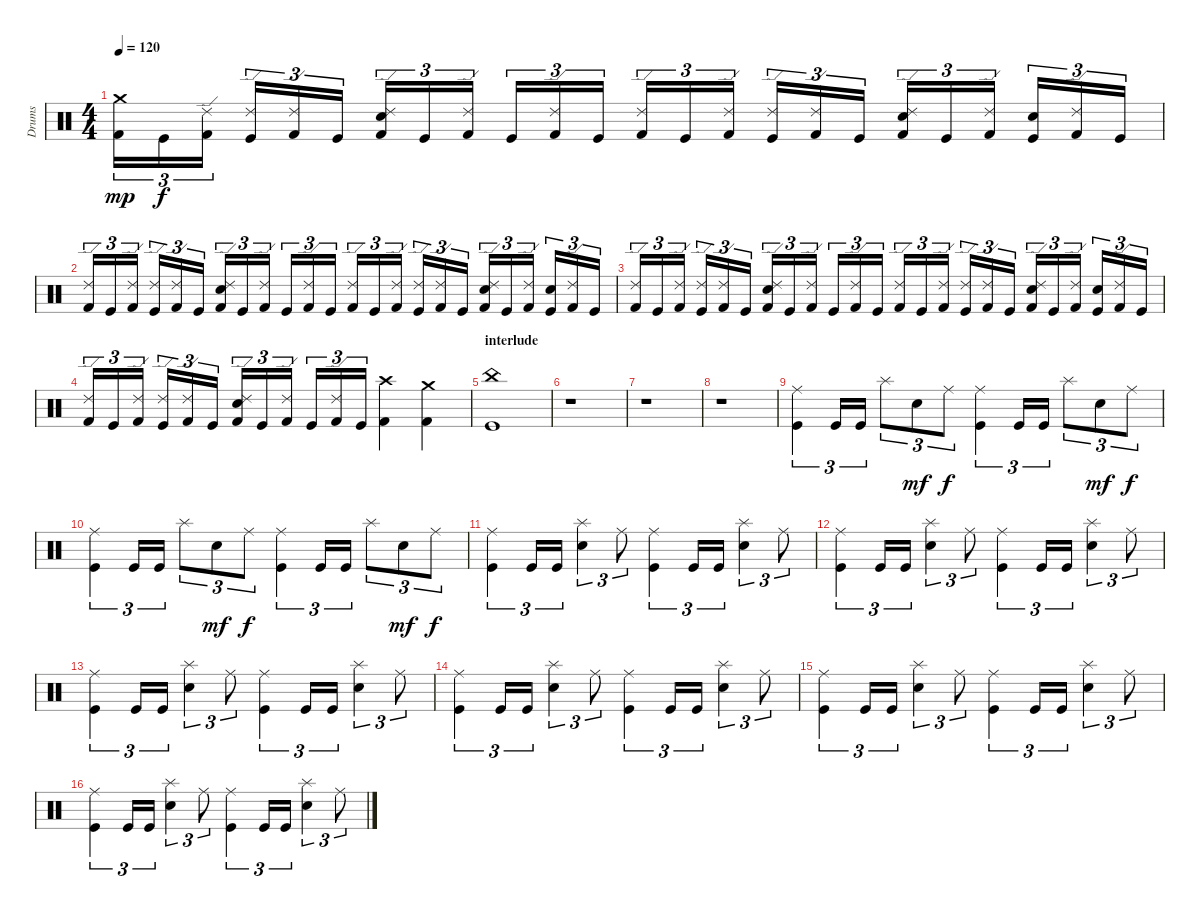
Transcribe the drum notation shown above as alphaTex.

\track ("Drums" "Drums") {instrument percussion}
\staff {score}
\articulation defaults
\ts (4 4)
\tempo 120
\clef neutral
\ks c
("Crash medium (hit)" "Kick (hit) 2").16{tu (3 2) dy mp} "Kick (hit)".16{tu (3 2) dy f} ("Ride (edge) 2" "Kick (hit) 2").16{tu (3 2)} ("Ride (edge) 2" "Kick (hit)").16{tu (3 2)} ("Ride (edge) 2" "Kick (hit) 2").16{tu (3 2)} "Kick (hit)".16{tu (3 2)} ("Ride (edge) 2" "Snare (hit) 2" "Kick (hit) 2").16{tu (3 2)} "Kick (hit)".16{tu (3 2)} ("Ride (edge) 2" "Kick (hit) 2").16{tu (3 2)} "Kick (hit)".16{tu (3 2)} ("Ride (edge) 2" "Kick (hit) 2").16{tu (3 2)} "Kick (hit)".16{tu (3 2)} ("Ride (edge) 2" "Kick (hit) 2").16{tu (3 2)} "Kick (hit)".16{tu (3 2)} ("Ride (edge) 2" "Kick (hit) 2").16{tu (3 2)} ("Ride (edge) 2" "Kick (hit)").16{tu (3 2)} ("Ride (edge) 2" "Kick (hit) 2").16{tu (3 2)} "Kick (hit)".16{tu (3 2)} ("Ride (edge) 2" "Snare (hit) 2" "Kick (hit) 2").16{tu (3 2)} "Kick (hit)".16{tu (3 2)} ("Ride (edge) 2" "Kick (hit) 2").16{tu (3 2)} ("Snare (hit) 2" "Kick (hit)").16{tu (3 2)} ("Ride (edge) 2" "Kick (hit) 2").16{tu (3 2)} "Kick (hit)".16{tu (3 2)} |
("Ride (edge) 2" "Kick (hit) 2").16{tu (3 2)} "Kick (hit)".16{tu (3 2)} ("Ride (edge) 2" "Kick (hit) 2").16{tu (3 2)} ("Ride (edge) 2" "Kick (hit)").16{tu (3 2)} ("Ride (edge) 2" "Kick (hit) 2").16{tu (3 2)} "Kick (hit)".16{tu (3 2)} ("Ride (edge) 2" "Snare (hit) 2" "Kick (hit) 2").16{tu (3 2)} "Kick (hit)".16{tu (3 2)} ("Ride (edge) 2" "Kick (hit) 2").16{tu (3 2)} "Kick (hit)".16{tu (3 2)} ("Ride (edge) 2" "Kick (hit) 2").16{tu (3 2)} "Kick (hit)".16{tu (3 2)} ("Ride (edge) 2" "Kick (hit) 2").16{tu (3 2)} "Kick (hit)".16{tu (3 2)} ("Ride (edge) 2" "Kick (hit) 2").16{tu (3 2)} ("Ride (edge) 2" "Kick (hit)").16{tu (3 2)} ("Ride (edge) 2" "Kick (hit) 2").16{tu (3 2)} "Kick (hit)".16{tu (3 2)} ("Ride (edge) 2" "Snare (hit) 2" "Kick (hit) 2").16{tu (3 2)} "Kick (hit)".16{tu (3 2)} ("Ride (edge) 2" "Kick (hit) 2").16{tu (3 2)} ("Snare (hit) 2" "Kick (hit)").16{tu (3 2)} ("Ride (edge) 2" "Kick (hit) 2").16{tu (3 2)} "Kick (hit)".16{tu (3 2)} |
("Ride (edge) 2" "Kick (hit) 2").16{tu (3 2)} "Kick (hit)".16{tu (3 2)} ("Ride (edge) 2" "Kick (hit) 2").16{tu (3 2)} ("Ride (edge) 2" "Kick (hit)").16{tu (3 2)} ("Ride (edge) 2" "Kick (hit) 2").16{tu (3 2)} "Kick (hit)".16{tu (3 2)} ("Ride (edge) 2" "Snare (hit) 2" "Kick (hit) 2").16{tu (3 2)} "Kick (hit)".16{tu (3 2)} ("Ride (edge) 2" "Kick (hit) 2").16{tu (3 2)} "Kick (hit)".16{tu (3 2)} ("Ride (edge) 2" "Kick (hit) 2").16{tu (3 2)} "Kick (hit)".16{tu (3 2)} ("Ride (edge) 2" "Kick (hit) 2").16{tu (3 2)} "Kick (hit)".16{tu (3 2)} ("Ride (edge) 2" "Kick (hit) 2").16{tu (3 2)} ("Ride (edge) 2" "Kick (hit)").16{tu (3 2)} ("Ride (edge) 2" "Kick (hit) 2").16{tu (3 2)} "Kick (hit)".16{tu (3 2)} ("Ride (edge) 2" "Snare (hit) 2" "Kick (hit) 2").16{tu (3 2)} "Kick (hit)".16{tu (3 2)} ("Ride (edge) 2" "Kick (hit) 2").16{tu (3 2)} ("Snare (hit) 2" "Kick (hit)").16{tu (3 2)} ("Ride (edge) 2" "Kick (hit) 2").16{tu (3 2)} "Kick (hit)".16{tu (3 2)} |
("Ride (edge) 2" "Kick (hit) 2").16{tu (3 2)} "Kick (hit)".16{tu (3 2)} ("Ride (edge) 2" "Kick (hit) 2").16{tu (3 2)} ("Ride (edge) 2" "Kick (hit)").16{tu (3 2)} ("Ride (edge) 2" "Kick (hit) 2").16{tu (3 2)} "Kick (hit)".16{tu (3 2)} ("Ride (edge) 2" "Snare (hit) 2" "Kick (hit) 2").16{tu (3 2)} "Kick (hit)".16{tu (3 2)} ("Ride (edge) 2" "Kick (hit) 2").16{tu (3 2)} "Kick (hit)".16{tu (3 2)} ("Ride (edge) 2" "Kick (hit) 2").16{tu (3 2)} "Kick (hit)".16{tu (3 2)} ("Crash high (hit)" "Kick (hit) 2").4 ("Crash medium (hit)" "Kick (hit) 2").4 |
\section ("" "interlude")
("China (hit)" "Kick (hit)").1 |
r.1 |
r.1 |
r.1 |
("Ride (middle)" "Kick (hit)").4{tu (3 2)} "Kick (hit)".16{tu (3 2)} "Kick (hit)".16{tu (3 2)} "Splash (hit)".8{tu (3 2)} "Electric Snare (hit)".8{tu (3 2) dy mf} "Ride (middle)".8{tu (3 2) dy f} ("Ride (middle)" "Kick (hit)").4{tu (3 2)} "Kick (hit)".16{tu (3 2)} "Kick (hit)".16{tu (3 2)} "Splash (hit)".8{tu (3 2)} "Electric Snare (hit)".8{tu (3 2) dy mf} "Ride (middle)".8{tu (3 2) dy f} |
("Ride (middle)" "Kick (hit)").4{tu (3 2)} "Kick (hit)".16{tu (3 2)} "Kick (hit)".16{tu (3 2)} "Splash (hit)".8{tu (3 2)} "Electric Snare (hit)".8{tu (3 2) dy mf} "Ride (middle)".8{tu (3 2) dy f} ("Ride (middle)" "Kick (hit)").4{tu (3 2)} "Kick (hit)".16{tu (3 2)} "Kick (hit)".16{tu (3 2)} "Splash (hit)".8{tu (3 2)} "Electric Snare (hit)".8{tu (3 2) dy mf} "Ride (middle)".8{tu (3 2) dy f} |
("Ride (middle)" "Kick (hit)").4{tu (3 2)} "Kick (hit)".16{tu (3 2)} "Kick (hit)".16{tu (3 2)} ("Splash (hit)" "Electric Snare (hit)").4{tu (3 2)} "Ride (middle)".8{tu (3 2)} ("Ride (middle)" "Kick (hit)").4{tu (3 2)} "Kick (hit)".16{tu (3 2)} "Kick (hit)".16{tu (3 2)} ("Splash (hit)" "Electric Snare (hit)").4{tu (3 2)} "Ride (middle)".8{tu (3 2)} |
("Ride (middle)" "Kick (hit)").4{tu (3 2)} "Kick (hit)".16{tu (3 2)} "Kick (hit)".16{tu (3 2)} ("Splash (hit)" "Electric Snare (hit)").4{tu (3 2)} "Ride (middle)".8{tu (3 2)} ("Ride (middle)" "Kick (hit)").4{tu (3 2)} "Kick (hit)".16{tu (3 2)} "Kick (hit)".16{tu (3 2)} ("Splash (hit)" "Electric Snare (hit)").4{tu (3 2)} "Ride (middle)".8{tu (3 2)} |
("Ride (middle)" "Kick (hit)").4{tu (3 2)} "Kick (hit)".16{tu (3 2)} "Kick (hit)".16{tu (3 2)} ("Splash (hit)" "Electric Snare (hit)").4{tu (3 2)} "Ride (middle)".8{tu (3 2)} ("Ride (middle)" "Kick (hit)").4{tu (3 2)} "Kick (hit)".16{tu (3 2)} "Kick (hit)".16{tu (3 2)} ("Splash (hit)" "Electric Snare (hit)").4{tu (3 2)} "Ride (middle)".8{tu (3 2)} |
("Ride (middle)" "Kick (hit)").4{tu (3 2)} "Kick (hit)".16{tu (3 2)} "Kick (hit)".16{tu (3 2)} ("Splash (hit)" "Electric Snare (hit)").4{tu (3 2)} "Ride (middle)".8{tu (3 2)} ("Ride (middle)" "Kick (hit)").4{tu (3 2)} "Kick (hit)".16{tu (3 2)} "Kick (hit)".16{tu (3 2)} ("Splash (hit)" "Electric Snare (hit)").4{tu (3 2)} "Ride (middle)".8{tu (3 2)} |
("Ride (middle)" "Kick (hit)").4{tu (3 2)} "Kick (hit)".16{tu (3 2)} "Kick (hit)".16{tu (3 2)} ("Splash (hit)" "Electric Snare (hit)").4{tu (3 2)} "Ride (middle)".8{tu (3 2)} ("Ride (middle)" "Kick (hit)").4{tu (3 2)} "Kick (hit)".16{tu (3 2)} "Kick (hit)".16{tu (3 2)} ("Splash (hit)" "Electric Snare (hit)").4{tu (3 2)} "Ride (middle)".8{tu (3 2)} |
("Ride (middle)" "Kick (hit)").4{tu (3 2)} "Kick (hit)".16{tu (3 2)} "Kick (hit)".16{tu (3 2)} ("Splash (hit)" "Electric Snare (hit)").4{tu (3 2)} "Ride (middle)".8{tu (3 2)} ("Ride (middle)" "Kick (hit)").4{tu (3 2)} "Kick (hit)".16{tu (3 2)} "Kick (hit)".16{tu (3 2)} ("Splash (hit)" "Electric Snare (hit)").4{tu (3 2)} "Ride (middle)".8{tu (3 2)}
